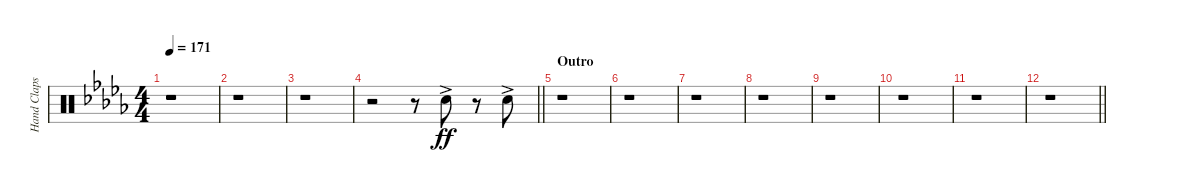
\track ("Hand Claps" "Hand Claps") {instrument percussion}
\staff {score}
\articulation defaults
\ts (4 4)
\tempo 171
\clef neutral
\ks db
r.1{dy ff} |
r.1 |
r.1 |
\barLineRight lightlight
r.2 r.8 "Hand Clap (hit)"{ac}.8 r.8 "Hand Clap (hit)"{ac}.8 |
\section ("" "Outro")
r.1 |
r.1 |
r.1 |
r.1 |
r.1 |
r.1 |
r.1 |
\barLineRight lightlight
r.1
